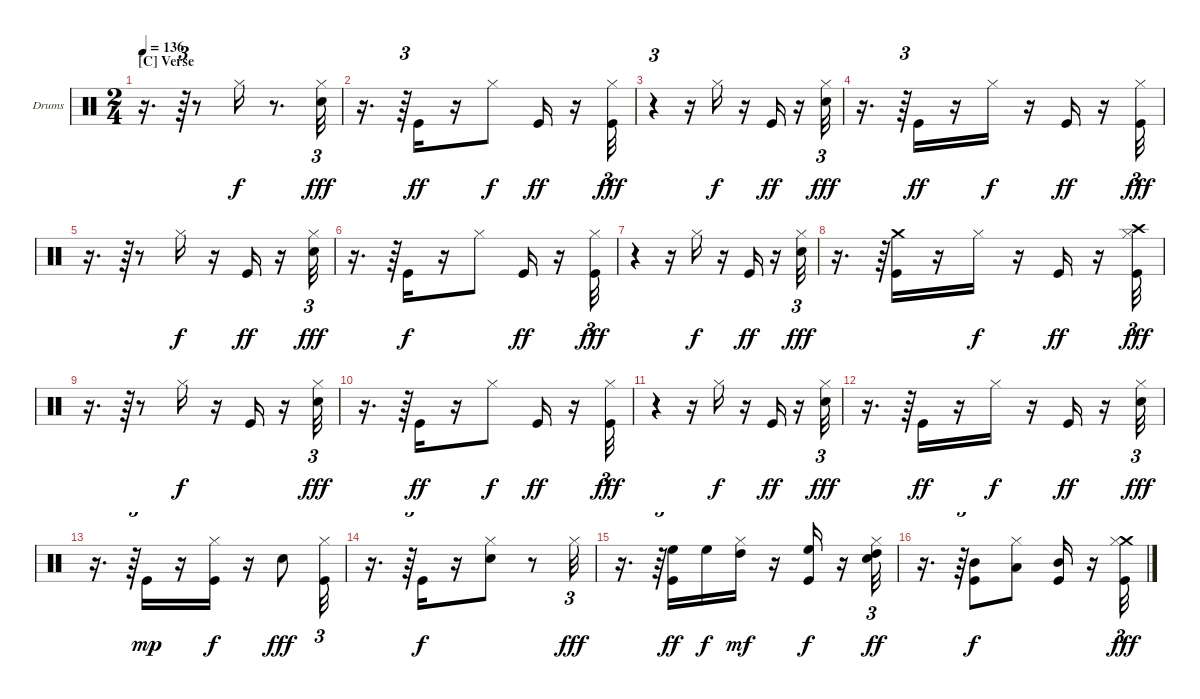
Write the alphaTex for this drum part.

\bracketExtendMode groupsimilarinstruments
\firstSystemTrackNameOrientation horizontal
\otherSystemsTrackNameOrientation horizontal
\track ("Drumkit" "Drums") {solo instrument percussion}
\staff {score}
\articulation defaults
\ts (2 4)
\section ("C" "Verse")
\tempo 136
\clef neutral
\ks c
r.16{d dy fff} r.64{tu (3 2)} r.8 "Hi-Hat (closed)".16{dy f} r.8{d} ("Hi-Hat (closed)" "Snare (hit) 2").32{tu (3 2) dy fff} |
r.16{d} r.64{tu (3 2)} "Kick (hit)".16{dy ff} r.16 "Hi-Hat (closed)".8{dy f} "Kick (hit)".16{dy ff} r.16 ("Hi-Hat (closed)" "Kick (hit)").32{tu (3 2) dy fff} |
r.4{tu (3 2)} r.16 "Hi-Hat (closed)".16{dy f} r.16 "Kick (hit)".16{dy ff} r.16 ("Hi-Hat (closed)" "Snare (hit) 2").32{tu (3 2) dy fff} |
r.16{d} r.64{tu (3 2)} "Kick (hit)".16{dy ff} r.16 "Hi-Hat (closed)".16{dy f} r.16 "Kick (hit)".16{dy ff} r.16 ("Hi-Hat (closed)" "Kick (hit)").32{tu (3 2) dy fff} |
r.16{d} r.64{tu (3 2)} r.8 "Hi-Hat (closed)".16{dy f} r.16 "Kick (hit)".16{dy ff} r.16 ("Hi-Hat (closed)" "Snare (hit) 2").32{tu (3 2) dy fff} |
r.16{d} r.64{tu (3 2)} "Kick (hit)".16{dy f} r.16 "Hi-Hat (closed)".8 "Kick (hit)".16{dy ff} r.16 ("Hi-Hat (closed)" "Kick (hit)").32{tu (3 2) dy fff} |
r.4{tu (3 2)} r.16 "Hi-Hat (closed)".16{dy f} r.16 "Kick (hit)".16{dy ff} r.16 ("Hi-Hat (closed)" "Snare (hit) 2").32{tu (3 2) dy fff} |
r.16{d} r.64{tu (3 2)} ("Crash medium (hit)" "Kick (hit)").16 r.16 "Hi-Hat (closed)".16{dy f} r.16 "Kick (hit)".16{dy ff} r.16 ("Crash high (hit)" "Hi-Hat (closed)" "Kick (hit)").32{tu (3 2) dy fff} |
r.16{d} r.64{tu (3 2)} r.8 "Hi-Hat (closed)".16{dy f} r.16 "Kick (hit)".16 r.16 ("Hi-Hat (closed)" "Snare (hit) 2").32{tu (3 2) dy fff} |
r.16{d} r.64{tu (3 2)} "Kick (hit)".16{dy ff} r.16 "Hi-Hat (closed)".8{dy f} "Kick (hit)".16{dy ff} r.16 ("Hi-Hat (closed)" "Kick (hit)").32{tu (3 2) dy fff} |
r.4{tu (3 2)} r.16 "Hi-Hat (closed)".16{dy f} r.16 "Kick (hit)".16{dy ff} r.16 ("Hi-Hat (closed)" "Snare (hit) 2").32{tu (3 2) dy fff} |
r.16{d} r.64{tu (3 2)} "Kick (hit)".16{dy ff} r.16 "Hi-Hat (closed)".16{dy f} r.16 "Kick (hit)".16{dy ff} r.16 ("Hi-Hat (closed)" "Snare (hit) 2").32{tu (3 2) dy fff} |
r.16{d} r.64{tu (3 2)} "Kick (hit)".16{dy mp} r.16 ("Hi-Hat (closed)" "Kick (hit)").16{dy f} r.16 "Snare (hit) 2".8{dy fff} ("Hi-Hat (closed)" "Kick (hit)").32{tu (3 2)} |
r.16{d} r.64{tu (3 2)} "Kick (hit)".16{dy f} r.16 ("Hi-Hat (closed)" "Snare (hit) 2").8 r.8 "Hi-Hat (closed)".32{tu (3 2) dy fff} |
r.16{d} r.64{tu (3 2)} ("High Floor Tom (hit)" "Kick (hit)").16{dy ff} "High Floor Tom (hit)".16{dy f} ("High Tom (hit)" "Hi-Hat (closed)").16{dy mf} r.16 ("High Floor Tom (hit)" "Kick (hit)").16{dy f} r.16 ("High Tom (hit)" "Hi-Hat (closed)" "Snare (hit) 2").32{tu (3 2) dy ff} |
r.16{d} r.64{tu (3 2)} ("Mid Tom (hit)" "Kick (hit)").8{dy f} ("Low Tom (hit)" "Hi-Hat (closed)").8 ("Mid Tom (hit)" "Kick (hit)").16 r.16 ("Crash medium (hit)" "Hi-Hat (closed)" "Kick (hit)").32{tu (3 2) dy fff}
